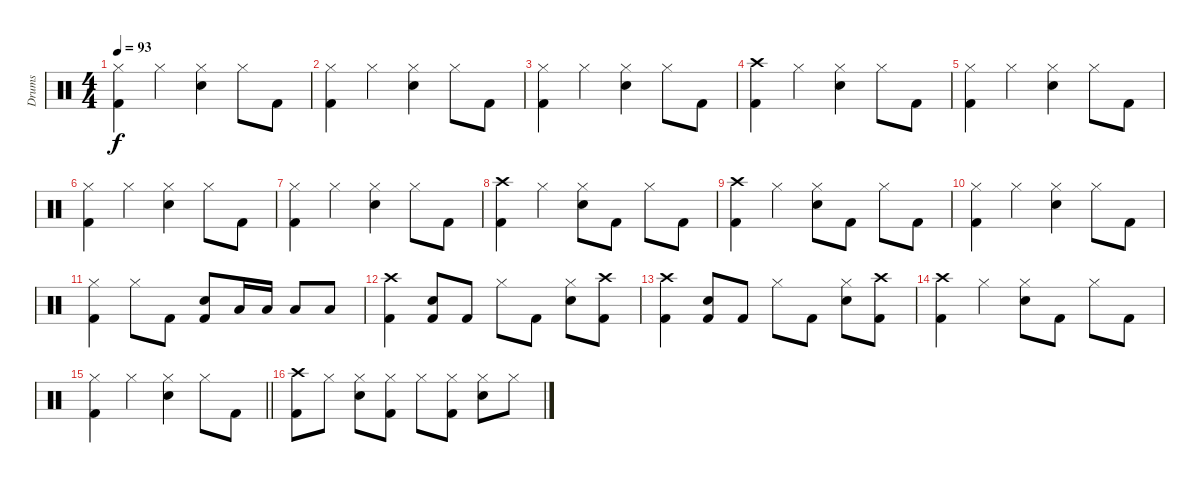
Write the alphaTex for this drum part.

\track ("Drums" "Drums") {instrument percussion}
\staff {score}
\articulation defaults
\ts (4 4)
\tempo 93
\clef neutral
\ks c
("Hi-Hat (closed)" "Kick (hit) 2").4{dy f} "Hi-Hat (closed)".4 ("Hi-Hat (closed)" "Snare (hit) 2").4 "Hi-Hat (closed)".8 "Kick (hit) 2".8 |
("Hi-Hat (closed)" "Kick (hit) 2").4 "Hi-Hat (closed)".4 ("Hi-Hat (closed)" "Snare (hit) 2").4 "Hi-Hat (closed)".8 "Kick (hit) 2".8 |
("Hi-Hat (closed)" "Kick (hit) 2").4 "Hi-Hat (closed)".4 ("Hi-Hat (closed)" "Snare (hit) 2").4 "Hi-Hat (closed)".8 "Kick (hit) 2".8 |
("Crash high (hit)" "Kick (hit) 2").4 "Hi-Hat (closed)".4 ("Hi-Hat (closed)" "Snare (hit) 2").4 "Hi-Hat (closed)".8 "Kick (hit) 2".8 |
("Hi-Hat (closed)" "Kick (hit) 2").4 "Hi-Hat (closed)".4 ("Hi-Hat (closed)" "Snare (hit) 2").4 "Hi-Hat (closed)".8 "Kick (hit) 2".8 |
("Hi-Hat (closed)" "Kick (hit) 2").4 "Hi-Hat (closed)".4 ("Hi-Hat (closed)" "Snare (hit) 2").4 "Hi-Hat (closed)".8 "Kick (hit) 2".8 |
("Hi-Hat (closed)" "Kick (hit) 2").4 "Hi-Hat (closed)".4 ("Hi-Hat (closed)" "Snare (hit) 2").4 "Hi-Hat (closed)".8 "Kick (hit) 2".8 |
("Crash high (hit)" "Kick (hit) 2").4 "Hi-Hat (closed)".4 ("Hi-Hat (closed)" "Snare (hit) 2").8 "Kick (hit) 2".8 "Hi-Hat (closed)".8 "Kick (hit) 2".8 |
("Crash high (hit)" "Kick (hit) 2").4 "Hi-Hat (closed)".4 ("Hi-Hat (closed)" "Snare (hit) 2").8 "Kick (hit) 2".8 "Hi-Hat (closed)".8 "Kick (hit) 2".8 |
("Hi-Hat (closed)" "Kick (hit) 2").4 "Hi-Hat (closed)".4 ("Hi-Hat (closed)" "Snare (hit) 2").4 "Hi-Hat (closed)".8 "Kick (hit) 2".8 |
("Hi-Hat (closed)" "Kick (hit) 2").4 "Hi-Hat (closed)".8 "Kick (hit) 2".8 ("Kick (hit) 2" "Snare (hit) 2").8 "Low Tom (hit)".16 "Low Tom (hit)".16 "Low Tom (hit)".8 "Low Tom (hit)".8 |
("Crash high (hit)" "Kick (hit) 2").4 ("Kick (hit) 2" "Snare (hit) 2").8 "Kick (hit) 2".8 "Hi-Hat (closed)".8 "Kick (hit) 2".8 ("Hi-Hat (closed)" "Snare (hit) 2").8 ("Crash high (hit)" "Kick (hit) 2").8 |
("Crash high (hit)" "Kick (hit) 2").4 ("Kick (hit) 2" "Snare (hit) 2").8 "Kick (hit) 2".8 "Hi-Hat (closed)".8 "Kick (hit) 2".8 ("Hi-Hat (closed)" "Snare (hit) 2").8 ("Crash high (hit)" "Kick (hit) 2").8 |
("Crash high (hit)" "Kick (hit) 2").4 "Hi-Hat (closed)".4 ("Hi-Hat (closed)" "Snare (hit) 2").8 "Kick (hit) 2".8 "Hi-Hat (closed)".8 "Kick (hit) 2".8 |
\barLineRight lightlight
("Hi-Hat (closed)" "Kick (hit) 2").4 "Hi-Hat (closed)".4 ("Hi-Hat (closed)" "Snare (hit) 2").4 "Hi-Hat (closed)".8 "Kick (hit) 2".8 |
("Crash high (hit)" "Kick (hit) 2").8 "Hi-Hat (closed)".8 ("Hi-Hat (closed)" "Snare (hit) 2").8 ("Hi-Hat (closed)" "Kick (hit) 2").8 "Hi-Hat (closed)".8 ("Hi-Hat (closed)" "Kick (hit) 2").8 ("Hi-Hat (closed)" "Snare (hit) 2").8 "Hi-Hat (closed)".8
